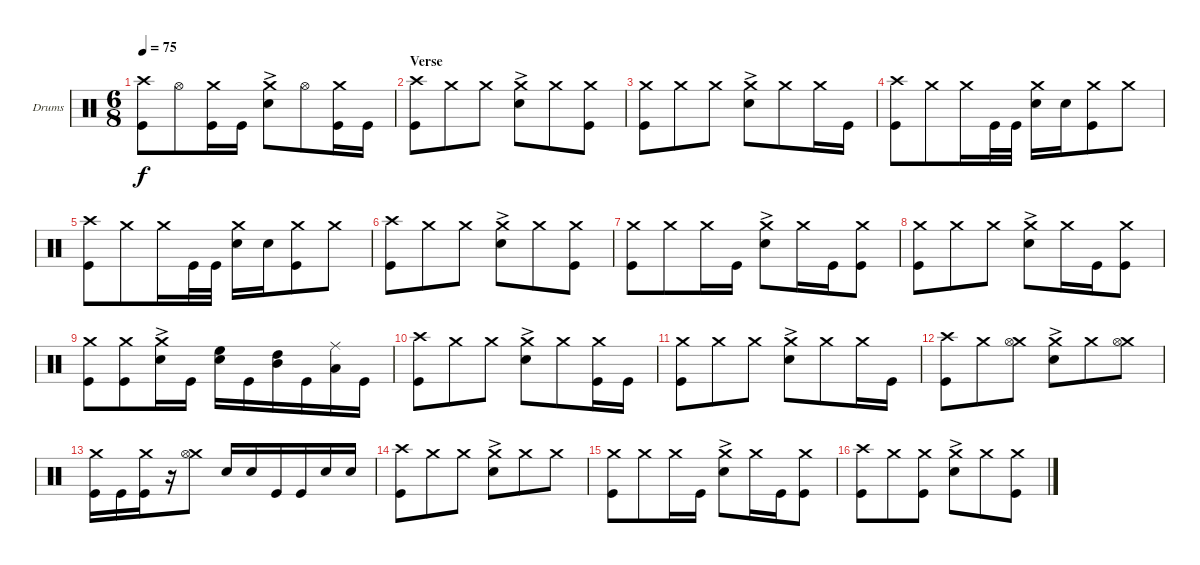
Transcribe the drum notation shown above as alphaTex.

\bracketExtendMode groupsimilarinstruments
\firstSystemTrackNameOrientation horizontal
\otherSystemsTrackNameOrientation horizontal
\track ("Drumkit" "Drums") {instrument percussion}
\staff {score}
\articulation defaults
\ts (6 8)
\tempo 75
\clef neutral
\ks c
("Kick (hit)" "Crash high (hit)").8{dy f} "Hi-Hat (open)".8 ("Crash medium (hit)" "Kick (hit)").16 "Kick (hit)".16 ("Crash medium (hit)" "Snare (hit) 2"{ac}).8 "Hi-Hat (open)".8 ("Crash medium (hit)" "Kick (hit)").16 "Kick (hit)".16 |
\section ("" "Verse")
("Crash high (hit)" "Kick (hit)").8 "Crash medium (hit)".8 "Crash medium (hit)".8 ("Crash medium (hit)" "Snare (hit) 2"{ac}).8 "Crash medium (hit)".8 ("Crash medium (hit)" "Kick (hit)").8 |
("Crash medium (hit)" "Kick (hit)").8 "Crash medium (hit)".8 "Crash medium (hit)".8 ("Crash medium (hit)" "Snare (hit) 2"{ac}).8 "Crash medium (hit)".8 "Crash medium (hit)".16 "Kick (hit)".16 |
("Kick (hit)" "Crash high (hit)").8 "Crash medium (hit)".8 "Crash medium (hit)".16 "Kick (hit)".32 "Kick (hit)".32 ("Snare (hit) 2" "Crash medium (hit)").16 "Snare (hit) 2".16 ("Kick (hit)" "Crash medium (hit)").8 "Crash medium (hit)".8 |
("Kick (hit)" "Crash high (hit)").8 "Crash medium (hit)".8 "Crash medium (hit)".16 "Kick (hit)".32 "Kick (hit)".32 ("Snare (hit) 2" "Crash medium (hit)").16 "Snare (hit) 2".16 ("Kick (hit)" "Crash medium (hit)").8 "Crash medium (hit)".8 |
("Crash high (hit)" "Kick (hit)").8 "Crash medium (hit)".8 "Crash medium (hit)".8 ("Crash medium (hit)" "Snare (hit) 2"{ac}).8 "Crash medium (hit)".8 ("Crash medium (hit)" "Kick (hit)").8 |
("Kick (hit)" "Crash medium (hit)").8 "Crash medium (hit)".8 "Crash medium (hit)".16 "Kick (hit)".16 ("Crash medium (hit)" "Snare (hit) 2"{ac}).8 "Crash medium (hit)".16 "Kick (hit)".16 ("Kick (hit)" "Crash medium (hit)").8 |
("Crash medium (hit)" "Kick (hit)").8 "Crash medium (hit)".8 "Crash medium (hit)".8 ("Crash medium (hit)" "Snare (hit) 2"{ac}).8 "Crash medium (hit)".16 "Kick (hit)".16 ("Kick (hit)" "Crash medium (hit)").8 |
("Kick (hit)" "Crash medium (hit)").8 ("Kick (hit)" "Crash medium (hit)").8 ("Snare (hit) 2"{ac} "Crash medium (hit)").16 "Kick (hit)".16 ("Snare (hit) 2" "High Floor Tom (hit)").16 "Kick (hit)".16 ("Mid Tom (hit)" "High Tom (hit)").16 "Kick (hit)".16 ("Low Tom (hit)" "Ride (middle)").16 "Kick (hit)".16 |
("Kick (hit)" "Crash high (hit)").8 "Crash medium (hit)".8 "Crash medium (hit)".8 ("Crash medium (hit)" "Snare (hit) 2"{ac}).8 "Crash medium (hit)".8 ("Crash medium (hit)" "Kick (hit)").16 "Kick (hit)".16 |
("Crash medium (hit)" "Kick (hit)").8 "Crash medium (hit)".8 "Crash medium (hit)".8 ("Crash medium (hit)" "Snare (hit) 2"{ac}).8 "Crash medium (hit)".8 "Crash medium (hit)".16 "Kick (hit)".16 |
("Crash high (hit)" "Kick (hit)").8 "Crash medium (hit)".8 ("Crash medium (hit)" "Hi-Hat (open)").8 ("Crash medium (hit)" "Snare (hit) 2"{ac}).8 "Crash medium (hit)".8 ("Crash medium (hit)" "Hi-Hat (open)").8 |
("Kick (hit)" "Crash medium (hit)").16 "Kick (hit)".16 ("Kick (hit)" "Crash medium (hit)").16 r.16 ("Crash medium (hit)" "Hi-Hat (open)").8 "Snare (hit) 2".16 "Snare (hit) 2".16 "Kick (hit)".16 "Kick (hit)".16 "Snare (hit) 2".16 "Snare (hit) 2".16 |
("Crash high (hit)" "Kick (hit)").8 "Crash medium (hit)".8 "Crash medium (hit)".8 ("Crash medium (hit)" "Snare (hit) 2"{ac}).8 "Crash medium (hit)".8 "Crash medium (hit)".8 |
("Kick (hit)" "Crash medium (hit)").8 "Crash medium (hit)".8 "Crash medium (hit)".16 "Kick (hit)".16 ("Crash medium (hit)" "Snare (hit) 2"{ac}).8 "Crash medium (hit)".16 "Kick (hit)".16 ("Kick (hit)" "Crash medium (hit)").8 |
("Crash high (hit)" "Kick (hit)").8 "Crash medium (hit)".8 ("Crash medium (hit)" "Kick (hit)").8 ("Crash medium (hit)" "Snare (hit) 2"{ac}).8 "Crash medium (hit)".8 ("Crash medium (hit)" "Kick (hit)").8
